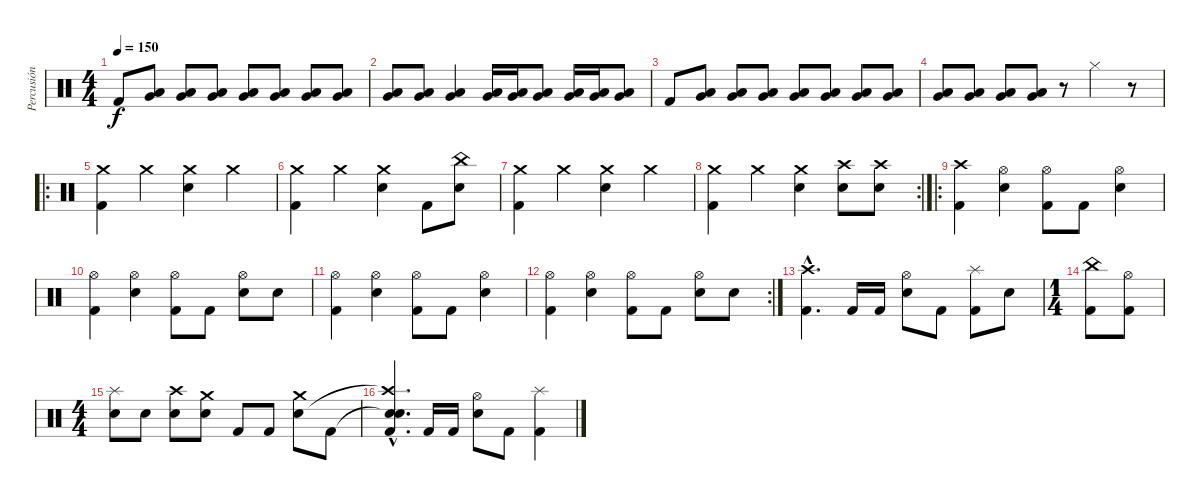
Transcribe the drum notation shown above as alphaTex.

\track ("Percusión" "Percusión") {instrument percussion}
\staff {score}
\articulation defaults
\ts (4 4)
\tempo 150
\clef neutral
\ks c "Kick (hit) 2".8{dy f}
("Very Low Tom (hit)" "Low Tom (hit)").8 ("Very Low Tom (hit)" "Low Tom (hit)").8 ("Very Low Tom (hit)" "Low Tom (hit)").8 ("Very Low Tom (hit)" "Low Tom (hit)").8 ("Very Low Tom (hit)" "Low Tom (hit)").8 ("Very Low Tom (hit)" "Low Tom (hit)").8 ("Very Low Tom (hit)" "Low Tom (hit)").8 |
("Very Low Tom (hit)" "Low Tom (hit)").8 ("Very Low Tom (hit)" "Low Tom (hit)").8 ("Very Low Tom (hit)" "Low Tom (hit)").4 ("Very Low Tom (hit)" "Low Tom (hit)").16 ("Very Low Tom (hit)" "Low Tom (hit)").16 ("Very Low Tom (hit)" "Low Tom (hit)").8 ("Very Low Tom (hit)" "Low Tom (hit)").16 ("Very Low Tom (hit)" "Low Tom (hit)").16 ("Very Low Tom (hit)" "Low Tom (hit)").8 |
"Kick (hit) 2".8 ("Very Low Tom (hit)" "Low Tom (hit)").8 ("Very Low Tom (hit)" "Low Tom (hit)").8 ("Very Low Tom (hit)" "Low Tom (hit)").8 ("Very Low Tom (hit)" "Low Tom (hit)").8 ("Very Low Tom (hit)" "Low Tom (hit)").8 ("Very Low Tom (hit)" "Low Tom (hit)").8 ("Very Low Tom (hit)" "Low Tom (hit)").8 |
("Very Low Tom (hit)" "Low Tom (hit)").8 ("Very Low Tom (hit)" "Low Tom (hit)").8 ("Very Low Tom (hit)" "Low Tom (hit)").8 ("Very Low Tom (hit)" "Low Tom (hit)").8 r.8 "Hi-Hat (closed)".4 r.8 |
\ro
("Crash medium (hit)" "Kick (hit) 2").4 "Crash medium (hit)".4 ("Crash medium (hit)" "Electric Snare (hit)").4 "Crash medium (hit)".4 |
("Crash medium (hit)" "Kick (hit) 2").4 "Crash medium (hit)".4 ("Crash medium (hit)" "Electric Snare (hit)").4 "Kick (hit) 2".8 ("China (hit)" "Electric Snare (hit)").8 |
("Crash medium (hit)" "Kick (hit) 2").4 "Crash medium (hit)".4 ("Crash medium (hit)" "Electric Snare (hit)").4 "Crash medium (hit)".4 |
\rc 2
("Crash medium (hit)" "Kick (hit) 2").4 "Crash medium (hit)".4 ("Crash medium (hit)" "Electric Snare (hit)").4 ("Crash high (hit)" "Electric Snare (hit)").8 ("Crash high (hit)" "Electric Snare (hit)").8 |
\ro
("Crash high (hit)" "Kick (hit) 2").4 ("Hi-Hat (open)" "Electric Snare (hit)").4 ("Hi-Hat (open)" "Kick (hit) 2").8 "Kick (hit) 2".8 ("Hi-Hat (open)" "Electric Snare (hit)").4 |
("Hi-Hat (open)" "Kick (hit) 2").4 ("Hi-Hat (open)" "Electric Snare (hit)").4 ("Hi-Hat (open)" "Kick (hit) 2").8 "Kick (hit) 2".8 ("Hi-Hat (open)" "Electric Snare (hit)").8 "Electric Snare (hit)".8 |
("Hi-Hat (open)" "Kick (hit) 2").4 ("Hi-Hat (open)" "Electric Snare (hit)").4 ("Hi-Hat (open)" "Kick (hit) 2").8 "Kick (hit) 2".8 ("Hi-Hat (open)" "Electric Snare (hit)").4 |
\rc 2
("Hi-Hat (open)" "Kick (hit) 2").4 ("Hi-Hat (open)" "Electric Snare (hit)").4 ("Hi-Hat (open)" "Kick (hit) 2").8 "Kick (hit) 2".8 ("Hi-Hat (open)" "Electric Snare (hit)").8 "Electric Snare (hit)".8 |
("Crash high (hit)"{hac} "Kick (hit) 2"{hac}).4{d} "Kick (hit) 2".16 "Kick (hit) 2".16 ("Hi-Hat (open)" "Electric Snare (hit)").8 "Kick (hit) 2".8 ("Splash (hit)" "Kick (hit) 2").8 "Electric Snare (hit)".8 |
\ts (1 4)
("China (hit)" "Kick (hit) 2").8 ("Hi-Hat (open)" "Kick (hit) 2").8 |
\ts (4 4)
("Splash (hit)" "Electric Snare (hit)").8 "Electric Snare (hit)".8 ("Crash high (hit)" "Electric Snare (hit)").8 ("Crash medium (hit)" "Electric Snare (hit)").8 "Kick (hit) 2".8 "Kick (hit) 2".8 ("Crash medium (hit)" "Electric Snare (hit)").8 "Kick (hit) 2".8 |
("Snare (hit)"{hac t} "Crash high (hit)"{hac t} "Snare (hit)"{hac} "Kick (hit) 2"{hac}).4{d} "Kick (hit) 2".16 "Kick (hit) 2".16 ("Hi-Hat (open)" "Electric Snare (hit)").8 "Kick (hit) 2".8 ("Splash (hit)" "Kick (hit) 2").4
